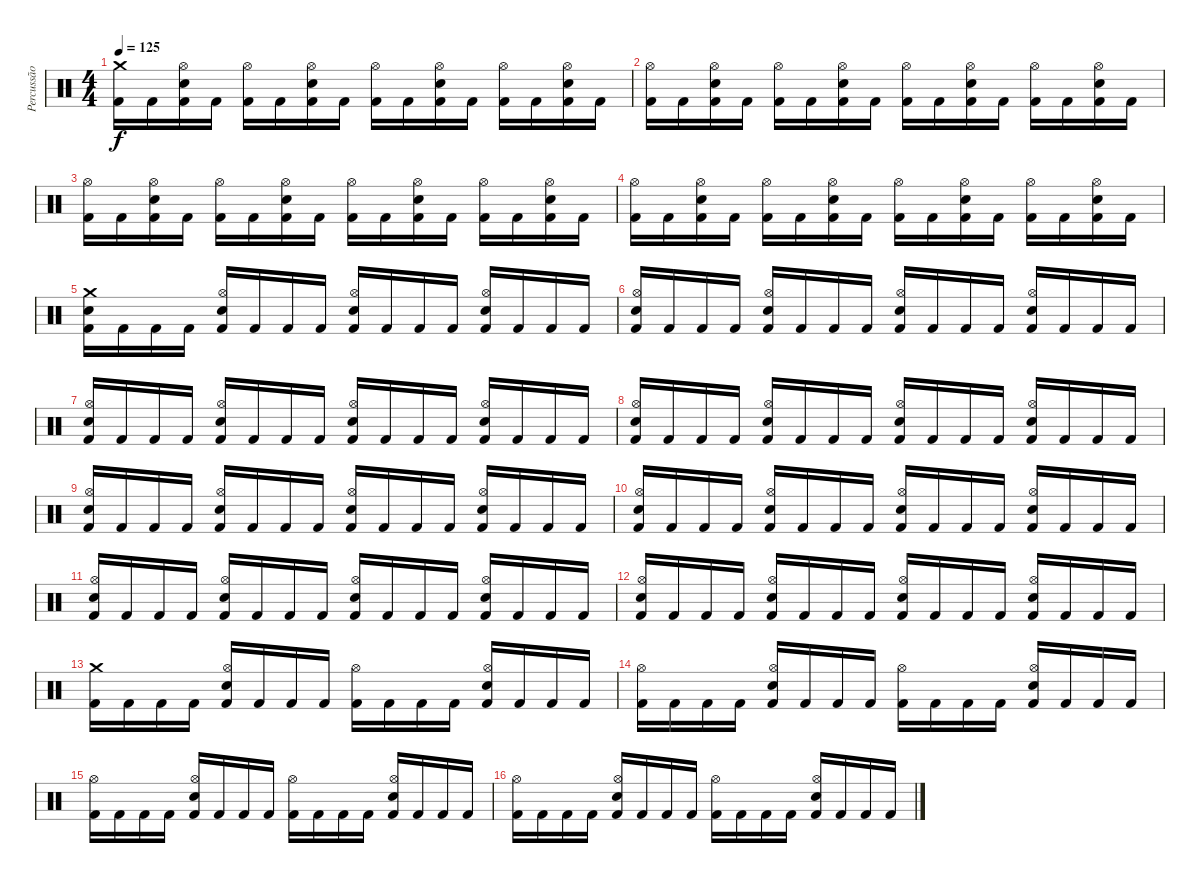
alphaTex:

\track ("Percussão" "Percussão") {instrument percussion}
\staff {score}
\articulation defaults
\ts (4 4)
\tempo 125
\clef neutral
\ks c
("Crash medium (hit)" "Kick (hit) 2").16{dy f} "Kick (hit) 2".16 ("Hi-Hat (open)" "Electric Snare (hit)" "Kick (hit) 2").16 "Kick (hit) 2".16 ("Hi-Hat (open)" "Kick (hit) 2").16 "Kick (hit) 2".16 ("Hi-Hat (open)" "Electric Snare (hit)" "Kick (hit) 2").16 "Kick (hit) 2".16 ("Hi-Hat (open)" "Kick (hit) 2").16 "Kick (hit) 2".16 ("Hi-Hat (open)" "Electric Snare (hit)" "Kick (hit) 2").16 "Kick (hit) 2".16 ("Hi-Hat (open)" "Kick (hit) 2").16 "Kick (hit) 2".16 ("Hi-Hat (open)" "Electric Snare (hit)" "Kick (hit) 2").16 "Kick (hit) 2".16 |
("Hi-Hat (open)" "Kick (hit) 2").16 "Kick (hit) 2".16 ("Hi-Hat (open)" "Electric Snare (hit)" "Kick (hit) 2").16 "Kick (hit) 2".16 ("Hi-Hat (open)" "Kick (hit) 2").16 "Kick (hit) 2".16 ("Hi-Hat (open)" "Electric Snare (hit)" "Kick (hit) 2").16 "Kick (hit) 2".16 ("Hi-Hat (open)" "Kick (hit) 2").16 "Kick (hit) 2".16 ("Hi-Hat (open)" "Electric Snare (hit)" "Kick (hit) 2").16 "Kick (hit) 2".16 ("Hi-Hat (open)" "Kick (hit) 2").16 "Kick (hit) 2".16 ("Hi-Hat (open)" "Electric Snare (hit)" "Kick (hit) 2").16 "Kick (hit) 2".16 |
("Hi-Hat (open)" "Kick (hit) 2").16 "Kick (hit) 2".16 ("Hi-Hat (open)" "Electric Snare (hit)" "Kick (hit) 2").16 "Kick (hit) 2".16 ("Hi-Hat (open)" "Kick (hit) 2").16 "Kick (hit) 2".16 ("Hi-Hat (open)" "Electric Snare (hit)" "Kick (hit) 2").16 "Kick (hit) 2".16 ("Hi-Hat (open)" "Kick (hit) 2").16 "Kick (hit) 2".16 ("Hi-Hat (open)" "Electric Snare (hit)" "Kick (hit) 2").16 "Kick (hit) 2".16 ("Hi-Hat (open)" "Kick (hit) 2").16 "Kick (hit) 2".16 ("Hi-Hat (open)" "Electric Snare (hit)" "Kick (hit) 2").16 "Kick (hit) 2".16 |
("Hi-Hat (open)" "Kick (hit) 2").16 "Kick (hit) 2".16 ("Hi-Hat (open)" "Electric Snare (hit)" "Kick (hit) 2").16 "Kick (hit) 2".16 ("Hi-Hat (open)" "Kick (hit) 2").16 "Kick (hit) 2".16 ("Hi-Hat (open)" "Electric Snare (hit)" "Kick (hit) 2").16 "Kick (hit) 2".16 ("Hi-Hat (open)" "Kick (hit) 2").16 "Kick (hit) 2".16 ("Hi-Hat (open)" "Electric Snare (hit)" "Kick (hit) 2").16 "Kick (hit) 2".16 ("Hi-Hat (open)" "Kick (hit) 2").16 "Kick (hit) 2".16 ("Hi-Hat (open)" "Electric Snare (hit)" "Kick (hit) 2").16 "Kick (hit) 2".16 |
("Crash medium (hit)" "Electric Snare (hit)" "Kick (hit) 2").16 "Kick (hit) 2".16 "Kick (hit) 2".16 "Kick (hit) 2".16 ("Hi-Hat (open)" "Electric Snare (hit)" "Kick (hit) 2").16 "Kick (hit) 2".16 "Kick (hit) 2".16 "Kick (hit) 2".16 ("Hi-Hat (open)" "Electric Snare (hit)" "Kick (hit) 2").16 "Kick (hit) 2".16 "Kick (hit) 2".16 "Kick (hit) 2".16 ("Hi-Hat (open)" "Electric Snare (hit)" "Kick (hit) 2").16 "Kick (hit) 2".16 "Kick (hit) 2".16 "Kick (hit) 2".16 |
("Hi-Hat (open)" "Electric Snare (hit)" "Kick (hit) 2").16 "Kick (hit) 2".16 "Kick (hit) 2".16 "Kick (hit) 2".16 ("Hi-Hat (open)" "Electric Snare (hit)" "Kick (hit) 2").16 "Kick (hit) 2".16 "Kick (hit) 2".16 "Kick (hit) 2".16 ("Hi-Hat (open)" "Electric Snare (hit)" "Kick (hit) 2").16 "Kick (hit) 2".16 "Kick (hit) 2".16 "Kick (hit) 2".16 ("Hi-Hat (open)" "Electric Snare (hit)" "Kick (hit) 2").16 "Kick (hit) 2".16 "Kick (hit) 2".16 "Kick (hit) 2".16 |
("Hi-Hat (open)" "Electric Snare (hit)" "Kick (hit) 2").16 "Kick (hit) 2".16 "Kick (hit) 2".16 "Kick (hit) 2".16 ("Hi-Hat (open)" "Electric Snare (hit)" "Kick (hit) 2").16 "Kick (hit) 2".16 "Kick (hit) 2".16 "Kick (hit) 2".16 ("Hi-Hat (open)" "Electric Snare (hit)" "Kick (hit) 2").16 "Kick (hit) 2".16 "Kick (hit) 2".16 "Kick (hit) 2".16 ("Hi-Hat (open)" "Electric Snare (hit)" "Kick (hit) 2").16 "Kick (hit) 2".16 "Kick (hit) 2".16 "Kick (hit) 2".16 |
("Hi-Hat (open)" "Electric Snare (hit)" "Kick (hit) 2").16 "Kick (hit) 2".16 "Kick (hit) 2".16 "Kick (hit) 2".16 ("Hi-Hat (open)" "Electric Snare (hit)" "Kick (hit) 2").16 "Kick (hit) 2".16 "Kick (hit) 2".16 "Kick (hit) 2".16 ("Hi-Hat (open)" "Electric Snare (hit)" "Kick (hit) 2").16 "Kick (hit) 2".16 "Kick (hit) 2".16 "Kick (hit) 2".16 ("Hi-Hat (open)" "Electric Snare (hit)" "Kick (hit) 2").16 "Kick (hit) 2".16 "Kick (hit) 2".16 "Kick (hit) 2".16 |
("Hi-Hat (open)" "Electric Snare (hit)" "Kick (hit) 2").16 "Kick (hit) 2".16 "Kick (hit) 2".16 "Kick (hit) 2".16 ("Hi-Hat (open)" "Electric Snare (hit)" "Kick (hit) 2").16 "Kick (hit) 2".16 "Kick (hit) 2".16 "Kick (hit) 2".16 ("Hi-Hat (open)" "Electric Snare (hit)" "Kick (hit) 2").16 "Kick (hit) 2".16 "Kick (hit) 2".16 "Kick (hit) 2".16 ("Hi-Hat (open)" "Electric Snare (hit)" "Kick (hit) 2").16 "Kick (hit) 2".16 "Kick (hit) 2".16 "Kick (hit) 2".16 |
("Hi-Hat (open)" "Electric Snare (hit)" "Kick (hit) 2").16 "Kick (hit) 2".16 "Kick (hit) 2".16 "Kick (hit) 2".16 ("Hi-Hat (open)" "Electric Snare (hit)" "Kick (hit) 2").16 "Kick (hit) 2".16 "Kick (hit) 2".16 "Kick (hit) 2".16 ("Hi-Hat (open)" "Electric Snare (hit)" "Kick (hit) 2").16 "Kick (hit) 2".16 "Kick (hit) 2".16 "Kick (hit) 2".16 ("Hi-Hat (open)" "Electric Snare (hit)" "Kick (hit) 2").16 "Kick (hit) 2".16 "Kick (hit) 2".16 "Kick (hit) 2".16 |
("Hi-Hat (open)" "Electric Snare (hit)" "Kick (hit) 2").16 "Kick (hit) 2".16 "Kick (hit) 2".16 "Kick (hit) 2".16 ("Hi-Hat (open)" "Electric Snare (hit)" "Kick (hit) 2").16 "Kick (hit) 2".16 "Kick (hit) 2".16 "Kick (hit) 2".16 ("Hi-Hat (open)" "Electric Snare (hit)" "Kick (hit) 2").16 "Kick (hit) 2".16 "Kick (hit) 2".16 "Kick (hit) 2".16 ("Hi-Hat (open)" "Electric Snare (hit)" "Kick (hit) 2").16 "Kick (hit) 2".16 "Kick (hit) 2".16 "Kick (hit) 2".16 |
("Hi-Hat (open)" "Electric Snare (hit)" "Kick (hit) 2").16 "Kick (hit) 2".16 "Kick (hit) 2".16 "Kick (hit) 2".16 ("Hi-Hat (open)" "Electric Snare (hit)" "Kick (hit) 2").16 "Kick (hit) 2".16 "Kick (hit) 2".16 "Kick (hit) 2".16 ("Hi-Hat (open)" "Electric Snare (hit)" "Kick (hit) 2").16 "Kick (hit) 2".16 "Kick (hit) 2".16 "Kick (hit) 2".16 ("Hi-Hat (open)" "Electric Snare (hit)" "Kick (hit) 2").16 "Kick (hit) 2".16 "Kick (hit) 2".16 "Kick (hit) 2".16 |
("Crash medium (hit)" "Kick (hit) 2").16 "Kick (hit) 2".16 "Kick (hit) 2".16 "Kick (hit) 2".16 ("Hi-Hat (open)" "Electric Snare (hit)" "Kick (hit) 2").16 "Kick (hit) 2".16 "Kick (hit) 2".16 "Kick (hit) 2".16 ("Hi-Hat (open)" "Kick (hit) 2").16 "Kick (hit) 2".16 "Kick (hit) 2".16 "Kick (hit) 2".16 ("Hi-Hat (open)" "Electric Snare (hit)" "Kick (hit) 2").16 "Kick (hit) 2".16 "Kick (hit) 2".16 "Kick (hit) 2".16 |
("Hi-Hat (open)" "Kick (hit) 2").16 "Kick (hit) 2".16 "Kick (hit) 2".16 "Kick (hit) 2".16 ("Hi-Hat (open)" "Electric Snare (hit)" "Kick (hit) 2").16 "Kick (hit) 2".16 "Kick (hit) 2".16 "Kick (hit) 2".16 ("Hi-Hat (open)" "Kick (hit) 2").16 "Kick (hit) 2".16 "Kick (hit) 2".16 "Kick (hit) 2".16 ("Hi-Hat (open)" "Electric Snare (hit)" "Kick (hit) 2").16 "Kick (hit) 2".16 "Kick (hit) 2".16 "Kick (hit) 2".16 |
("Hi-Hat (open)" "Kick (hit) 2").16 "Kick (hit) 2".16 "Kick (hit) 2".16 "Kick (hit) 2".16 ("Hi-Hat (open)" "Electric Snare (hit)" "Kick (hit) 2").16 "Kick (hit) 2".16 "Kick (hit) 2".16 "Kick (hit) 2".16 ("Hi-Hat (open)" "Kick (hit) 2").16 "Kick (hit) 2".16 "Kick (hit) 2".16 "Kick (hit) 2".16 ("Hi-Hat (open)" "Electric Snare (hit)" "Kick (hit) 2").16 "Kick (hit) 2".16 "Kick (hit) 2".16 "Kick (hit) 2".16 |
("Hi-Hat (open)" "Kick (hit) 2").16 "Kick (hit) 2".16 "Kick (hit) 2".16 "Kick (hit) 2".16 ("Hi-Hat (open)" "Electric Snare (hit)" "Kick (hit) 2").16 "Kick (hit) 2".16 "Kick (hit) 2".16 "Kick (hit) 2".16 ("Hi-Hat (open)" "Kick (hit) 2").16 "Kick (hit) 2".16 "Kick (hit) 2".16 "Kick (hit) 2".16 ("Hi-Hat (open)" "Electric Snare (hit)" "Kick (hit) 2").16 "Kick (hit) 2".16 "Kick (hit) 2".16 "Kick (hit) 2".16
